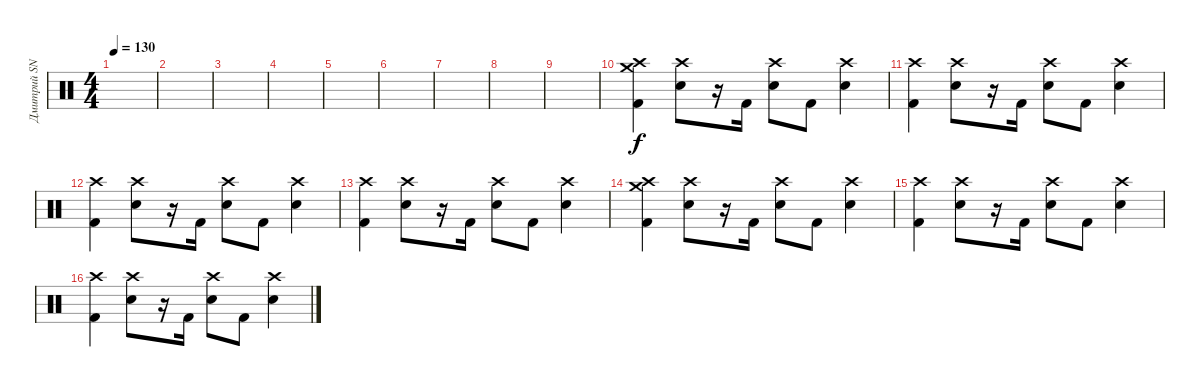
\track ("Дмитрий SNAKE Хакимов" "Дмитрий SN") {instrument percussion}
\staff {score}
\articulation defaults
\ts (4 4)
\tempo 130
\clef neutral
\ks c
|
|
|
|
|
|
|
|
|
("Crash high (hit)" "Crash medium (hit)" "Kick (hit) 2").4 ("Crash high (hit)" "Snare (hit) 2").8 r.16 "Kick (hit) 2".16 ("Crash high (hit)" "Snare (hit) 2").8 "Kick (hit) 2".8 ("Crash high (hit)" "Snare (hit) 2").4 |
("Crash high (hit)" "Kick (hit) 2").4 ("Crash high (hit)" "Snare (hit) 2").8 r.16 "Kick (hit) 2".16 ("Crash high (hit)" "Snare (hit) 2").8 "Kick (hit) 2".8 ("Crash high (hit)" "Snare (hit) 2").4 |
("Crash high (hit)" "Kick (hit) 2").4 ("Crash high (hit)" "Snare (hit) 2").8 r.16 "Kick (hit) 2".16 ("Crash high (hit)" "Snare (hit) 2").8 "Kick (hit) 2".8 ("Crash high (hit)" "Snare (hit) 2").4 |
("Crash high (hit)" "Kick (hit) 2").4 ("Crash high (hit)" "Snare (hit) 2").8 r.16 "Kick (hit) 2".16 ("Crash high (hit)" "Snare (hit) 2").8 "Kick (hit) 2".8 ("Crash high (hit)" "Snare (hit) 2").4 |
("Crash high (hit)" "Crash medium (hit)" "Kick (hit) 2").4 ("Crash high (hit)" "Snare (hit) 2").8 r.16 "Kick (hit) 2".16 ("Crash high (hit)" "Snare (hit) 2").8 "Kick (hit) 2".8 ("Crash high (hit)" "Snare (hit) 2").4 |
("Crash high (hit)" "Kick (hit) 2").4 ("Crash high (hit)" "Snare (hit) 2").8 r.16 "Kick (hit) 2".16 ("Crash high (hit)" "Snare (hit) 2").8 "Kick (hit) 2".8 ("Crash high (hit)" "Snare (hit) 2").4 |
("Crash high (hit)" "Kick (hit) 2").4 ("Crash high (hit)" "Snare (hit) 2").8 r.16 "Kick (hit) 2".16 ("Crash high (hit)" "Snare (hit) 2").8 "Kick (hit) 2".8 ("Crash high (hit)" "Snare (hit) 2").4
